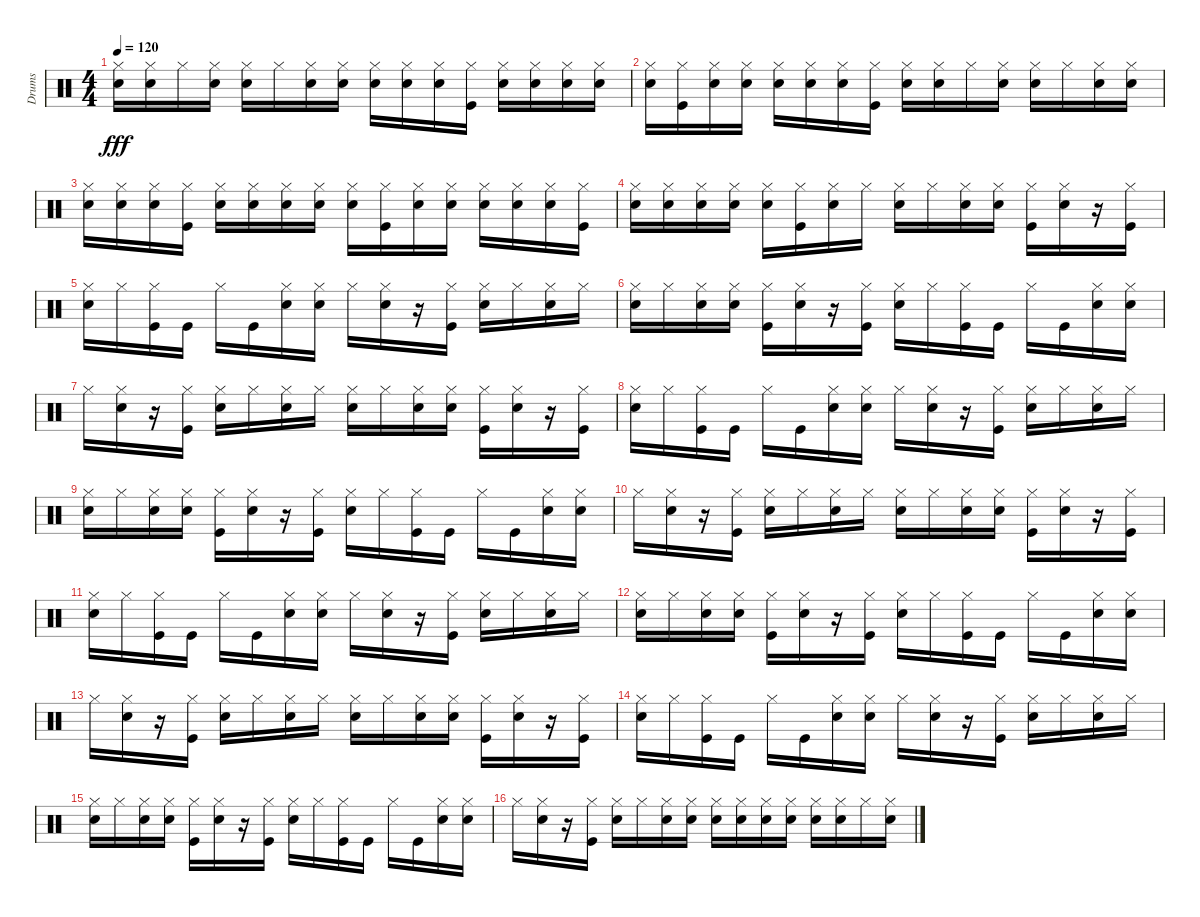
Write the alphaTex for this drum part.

\track ("Drums" "Drums") {instrument percussion}
\staff {score}
\articulation defaults
\ts (4 4)
\tempo 120
\clef neutral
\ks c
("Snare (hit) 2" "Hi-Hat (closed)").16{dy fff} ("Snare (hit) 2" "Hi-Hat (closed)").16 "Hi-Hat (closed)".16 ("Snare (hit) 2" "Hi-Hat (closed)").16 ("Snare (hit) 2" "Hi-Hat (closed)").16 "Hi-Hat (closed)".16 ("Snare (hit) 2" "Hi-Hat (closed)").16 ("Snare (hit) 2" "Hi-Hat (closed)").16 ("Snare (hit) 2" "Hi-Hat (closed)").16 ("Snare (hit) 2" "Hi-Hat (closed)").16 ("Snare (hit) 2" "Hi-Hat (closed)").16 ("Kick (hit)" "Hi-Hat (closed)").16 ("Snare (hit) 2" "Hi-Hat (closed)").16 ("Snare (hit) 2" "Hi-Hat (closed)").16 ("Snare (hit) 2" "Hi-Hat (closed)").16 ("Snare (hit) 2" "Hi-Hat (closed)").16 |
("Snare (hit) 2" "Hi-Hat (closed)").16 ("Kick (hit)" "Hi-Hat (closed)").16 ("Snare (hit) 2" "Hi-Hat (closed)").16 ("Snare (hit) 2" "Hi-Hat (closed)").16 ("Snare (hit) 2" "Hi-Hat (closed)").16 ("Snare (hit) 2" "Hi-Hat (closed)").16 ("Snare (hit) 2" "Hi-Hat (closed)").16 ("Kick (hit)" "Hi-Hat (closed)").16 ("Snare (hit) 2" "Hi-Hat (closed)").16 ("Snare (hit) 2" "Hi-Hat (closed)").16 "Hi-Hat (closed)".16 ("Snare (hit) 2" "Hi-Hat (closed)").16 ("Snare (hit) 2" "Hi-Hat (closed)").16 "Hi-Hat (closed)".16 ("Snare (hit) 2" "Hi-Hat (closed)").16 ("Snare (hit) 2" "Hi-Hat (closed)").16 |
("Snare (hit) 2" "Hi-Hat (closed)").16 ("Snare (hit) 2" "Hi-Hat (closed)").16 ("Snare (hit) 2" "Hi-Hat (closed)").16 ("Kick (hit)" "Hi-Hat (closed)").16 ("Snare (hit) 2" "Hi-Hat (closed)").16 ("Snare (hit) 2" "Hi-Hat (closed)").16 ("Snare (hit) 2" "Hi-Hat (closed)").16 ("Snare (hit) 2" "Hi-Hat (closed)").16 ("Snare (hit) 2" "Hi-Hat (closed)").16 ("Kick (hit)" "Hi-Hat (closed)").16 ("Snare (hit) 2" "Hi-Hat (closed)").16 ("Snare (hit) 2" "Hi-Hat (closed)").16 ("Snare (hit) 2" "Hi-Hat (closed)").16 ("Snare (hit) 2" "Hi-Hat (closed)").16 ("Snare (hit) 2" "Hi-Hat (closed)").16 ("Kick (hit)" "Hi-Hat (closed)").16 |
("Snare (hit) 2" "Hi-Hat (closed)").16 ("Snare (hit) 2" "Hi-Hat (closed)").16 ("Snare (hit) 2" "Hi-Hat (closed)").16 ("Snare (hit) 2" "Hi-Hat (closed)").16 ("Snare (hit) 2" "Hi-Hat (closed)").16 ("Kick (hit)" "Hi-Hat (closed)").16 ("Snare (hit) 2" "Hi-Hat (closed)").16 "Hi-Hat (closed)".16 ("Snare (hit) 2" "Hi-Hat (closed)").16 "Hi-Hat (closed)".16 ("Snare (hit) 2" "Hi-Hat (closed)").16 ("Snare (hit) 2" "Hi-Hat (closed)").16 ("Kick (hit)" "Hi-Hat (closed)").16 ("Snare (hit) 2" "Hi-Hat (closed)").16 r.16 ("Kick (hit)" "Hi-Hat (closed)").16 |
("Snare (hit) 2" "Hi-Hat (closed)").16 "Hi-Hat (closed)".16 ("Kick (hit)" "Hi-Hat (closed)").16 "Kick (hit)".16 "Hi-Hat (closed)".16 "Kick (hit)".16 ("Snare (hit) 2" "Hi-Hat (closed)").16 ("Snare (hit) 2" "Hi-Hat (closed)").16 "Hi-Hat (closed)".16 ("Snare (hit) 2" "Hi-Hat (closed)").16 r.16 ("Kick (hit)" "Hi-Hat (closed)").16 ("Snare (hit) 2" "Hi-Hat (closed)").16 "Hi-Hat (closed)".16 ("Snare (hit) 2" "Hi-Hat (closed)").16 "Hi-Hat (closed)".16 |
("Snare (hit) 2" "Hi-Hat (closed)").16 "Hi-Hat (closed)".16 ("Snare (hit) 2" "Hi-Hat (closed)").16 ("Snare (hit) 2" "Hi-Hat (closed)").16 ("Kick (hit)" "Hi-Hat (closed)").16 ("Snare (hit) 2" "Hi-Hat (closed)").16 r.16 ("Kick (hit)" "Hi-Hat (closed)").16 ("Snare (hit) 2" "Hi-Hat (closed)").16 "Hi-Hat (closed)".16 ("Kick (hit)" "Hi-Hat (closed)").16 "Kick (hit)".16 "Hi-Hat (closed)".16 "Kick (hit)".16 ("Snare (hit) 2" "Hi-Hat (closed)").16 ("Snare (hit) 2" "Hi-Hat (closed)").16 |
"Hi-Hat (closed)".16 ("Snare (hit) 2" "Hi-Hat (closed)").16 r.16 ("Kick (hit)" "Hi-Hat (closed)").16 ("Snare (hit) 2" "Hi-Hat (closed)").16 "Hi-Hat (closed)".16 ("Snare (hit) 2" "Hi-Hat (closed)").16 "Hi-Hat (closed)".16 ("Snare (hit) 2" "Hi-Hat (closed)").16 "Hi-Hat (closed)".16 ("Snare (hit) 2" "Hi-Hat (closed)").16 ("Snare (hit) 2" "Hi-Hat (closed)").16 ("Kick (hit)" "Hi-Hat (closed)").16 ("Snare (hit) 2" "Hi-Hat (closed)").16 r.16 ("Kick (hit)" "Hi-Hat (closed)").16 |
("Snare (hit) 2" "Hi-Hat (closed)").16 "Hi-Hat (closed)".16 ("Kick (hit)" "Hi-Hat (closed)").16 "Kick (hit)".16 "Hi-Hat (closed)".16 "Kick (hit)".16 ("Snare (hit) 2" "Hi-Hat (closed)").16 ("Snare (hit) 2" "Hi-Hat (closed)").16 "Hi-Hat (closed)".16 ("Snare (hit) 2" "Hi-Hat (closed)").16 r.16 ("Kick (hit)" "Hi-Hat (closed)").16 ("Snare (hit) 2" "Hi-Hat (closed)").16 "Hi-Hat (closed)".16 ("Snare (hit) 2" "Hi-Hat (closed)").16 "Hi-Hat (closed)".16 |
("Snare (hit) 2" "Hi-Hat (closed)").16 "Hi-Hat (closed)".16 ("Snare (hit) 2" "Hi-Hat (closed)").16 ("Snare (hit) 2" "Hi-Hat (closed)").16 ("Kick (hit)" "Hi-Hat (closed)").16 ("Snare (hit) 2" "Hi-Hat (closed)").16 r.16 ("Kick (hit)" "Hi-Hat (closed)").16 ("Snare (hit) 2" "Hi-Hat (closed)").16 "Hi-Hat (closed)".16 ("Kick (hit)" "Hi-Hat (closed)").16 "Kick (hit)".16 "Hi-Hat (closed)".16 "Kick (hit)".16 ("Snare (hit) 2" "Hi-Hat (closed)").16 ("Snare (hit) 2" "Hi-Hat (closed)").16 |
"Hi-Hat (closed)".16 ("Snare (hit) 2" "Hi-Hat (closed)").16 r.16 ("Kick (hit)" "Hi-Hat (closed)").16 ("Snare (hit) 2" "Hi-Hat (closed)").16 "Hi-Hat (closed)".16 ("Snare (hit) 2" "Hi-Hat (closed)").16 "Hi-Hat (closed)".16 ("Snare (hit) 2" "Hi-Hat (closed)").16 "Hi-Hat (closed)".16 ("Snare (hit) 2" "Hi-Hat (closed)").16 ("Snare (hit) 2" "Hi-Hat (closed)").16 ("Kick (hit)" "Hi-Hat (closed)").16 ("Snare (hit) 2" "Hi-Hat (closed)").16 r.16 ("Kick (hit)" "Hi-Hat (closed)").16 |
("Snare (hit) 2" "Hi-Hat (closed)").16 "Hi-Hat (closed)".16 ("Kick (hit)" "Hi-Hat (closed)").16 "Kick (hit)".16 "Hi-Hat (closed)".16 "Kick (hit)".16 ("Snare (hit) 2" "Hi-Hat (closed)").16 ("Snare (hit) 2" "Hi-Hat (closed)").16 "Hi-Hat (closed)".16 ("Snare (hit) 2" "Hi-Hat (closed)").16 r.16 ("Kick (hit)" "Hi-Hat (closed)").16 ("Snare (hit) 2" "Hi-Hat (closed)").16 "Hi-Hat (closed)".16 ("Snare (hit) 2" "Hi-Hat (closed)").16 "Hi-Hat (closed)".16 |
("Snare (hit) 2" "Hi-Hat (closed)").16 "Hi-Hat (closed)".16 ("Snare (hit) 2" "Hi-Hat (closed)").16 ("Snare (hit) 2" "Hi-Hat (closed)").16 ("Kick (hit)" "Hi-Hat (closed)").16 ("Snare (hit) 2" "Hi-Hat (closed)").16 r.16 ("Kick (hit)" "Hi-Hat (closed)").16 ("Snare (hit) 2" "Hi-Hat (closed)").16 "Hi-Hat (closed)".16 ("Kick (hit)" "Hi-Hat (closed)").16 "Kick (hit)".16 "Hi-Hat (closed)".16 "Kick (hit)".16 ("Snare (hit) 2" "Hi-Hat (closed)").16 ("Snare (hit) 2" "Hi-Hat (closed)").16 |
"Hi-Hat (closed)".16 ("Snare (hit) 2" "Hi-Hat (closed)").16 r.16 ("Kick (hit)" "Hi-Hat (closed)").16 ("Snare (hit) 2" "Hi-Hat (closed)").16 "Hi-Hat (closed)".16 ("Snare (hit) 2" "Hi-Hat (closed)").16 "Hi-Hat (closed)".16 ("Snare (hit) 2" "Hi-Hat (closed)").16 "Hi-Hat (closed)".16 ("Snare (hit) 2" "Hi-Hat (closed)").16 ("Snare (hit) 2" "Hi-Hat (closed)").16 ("Kick (hit)" "Hi-Hat (closed)").16 ("Snare (hit) 2" "Hi-Hat (closed)").16 r.16 ("Kick (hit)" "Hi-Hat (closed)").16 |
("Snare (hit) 2" "Hi-Hat (closed)").16 "Hi-Hat (closed)".16 ("Kick (hit)" "Hi-Hat (closed)").16 "Kick (hit)".16 "Hi-Hat (closed)".16 "Kick (hit)".16 ("Snare (hit) 2" "Hi-Hat (closed)").16 ("Snare (hit) 2" "Hi-Hat (closed)").16 "Hi-Hat (closed)".16 ("Snare (hit) 2" "Hi-Hat (closed)").16 r.16 ("Kick (hit)" "Hi-Hat (closed)").16 ("Snare (hit) 2" "Hi-Hat (closed)").16 "Hi-Hat (closed)".16 ("Snare (hit) 2" "Hi-Hat (closed)").16 "Hi-Hat (closed)".16 |
("Snare (hit) 2" "Hi-Hat (closed)").16 "Hi-Hat (closed)".16 ("Snare (hit) 2" "Hi-Hat (closed)").16 ("Snare (hit) 2" "Hi-Hat (closed)").16 ("Kick (hit)" "Hi-Hat (closed)").16 ("Snare (hit) 2" "Hi-Hat (closed)").16 r.16 ("Kick (hit)" "Hi-Hat (closed)").16 ("Snare (hit) 2" "Hi-Hat (closed)").16 "Hi-Hat (closed)".16 ("Kick (hit)" "Hi-Hat (closed)").16 "Kick (hit)".16 "Hi-Hat (closed)".16 "Kick (hit)".16 ("Snare (hit) 2" "Hi-Hat (closed)").16 ("Snare (hit) 2" "Hi-Hat (closed)").16 |
"Hi-Hat (closed)".16 ("Snare (hit) 2" "Hi-Hat (closed)").16 r.16 ("Kick (hit)" "Hi-Hat (closed)").16 ("Snare (hit) 2" "Hi-Hat (closed)").16 "Hi-Hat (closed)".16 ("Snare (hit) 2" "Hi-Hat (closed)").16 ("Snare (hit) 2" "Hi-Hat (closed)").16 ("Snare (hit) 2" "Hi-Hat (closed)").16 ("Snare (hit) 2" "Hi-Hat (closed)").16 ("Snare (hit) 2" "Hi-Hat (closed)").16 ("Snare (hit) 2" "Hi-Hat (closed)").16 ("Snare (hit) 2" "Hi-Hat (closed)").16 ("Snare (hit) 2" "Hi-Hat (closed)").16 "Hi-Hat (closed)".16 ("Snare (hit) 2" "Hi-Hat (closed)").16
